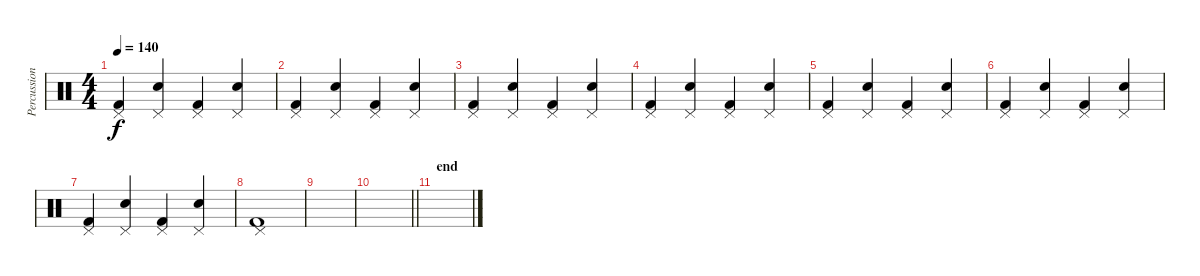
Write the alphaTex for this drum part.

\track ("Percussion" "Percussion") {instrument percussion}
\staff {score}
\articulation defaults
\ts (4 4)
\tempo 140
\clef neutral
\ks c
("Kick (hit) 2" "Pedal Hi-Hat (hit)").4{dy f} ("Snare (hit) 2" "Pedal Hi-Hat (hit)").4 ("Kick (hit) 2" "Pedal Hi-Hat (hit)").4 ("Snare (hit) 2" "Pedal Hi-Hat (hit)").4 |
("Kick (hit) 2" "Pedal Hi-Hat (hit)").4 ("Snare (hit) 2" "Pedal Hi-Hat (hit)").4 ("Kick (hit) 2" "Pedal Hi-Hat (hit)").4 ("Snare (hit) 2" "Pedal Hi-Hat (hit)").4 |
("Kick (hit) 2" "Pedal Hi-Hat (hit)").4 ("Snare (hit) 2" "Pedal Hi-Hat (hit)").4 ("Kick (hit) 2" "Pedal Hi-Hat (hit)").4 ("Snare (hit) 2" "Pedal Hi-Hat (hit)").4 |
("Kick (hit) 2" "Pedal Hi-Hat (hit)").4 ("Snare (hit) 2" "Pedal Hi-Hat (hit)").4 ("Kick (hit) 2" "Pedal Hi-Hat (hit)").4 ("Snare (hit) 2" "Pedal Hi-Hat (hit)").4 |
("Kick (hit) 2" "Pedal Hi-Hat (hit)").4 ("Snare (hit) 2" "Pedal Hi-Hat (hit)").4 ("Kick (hit) 2" "Pedal Hi-Hat (hit)").4 ("Snare (hit) 2" "Pedal Hi-Hat (hit)").4 |
("Kick (hit) 2" "Pedal Hi-Hat (hit)").4 ("Snare (hit) 2" "Pedal Hi-Hat (hit)").4 ("Kick (hit) 2" "Pedal Hi-Hat (hit)").4 ("Snare (hit) 2" "Pedal Hi-Hat (hit)").4 |
("Kick (hit) 2" "Pedal Hi-Hat (hit)").4 ("Snare (hit) 2" "Pedal Hi-Hat (hit)").4 ("Kick (hit) 2" "Pedal Hi-Hat (hit)").4 ("Snare (hit) 2" "Pedal Hi-Hat (hit)").4 |
("Kick (hit) 2" "Pedal Hi-Hat (hit)").1 |
|
\barLineRight lightlight
|
\section ("" "end")
